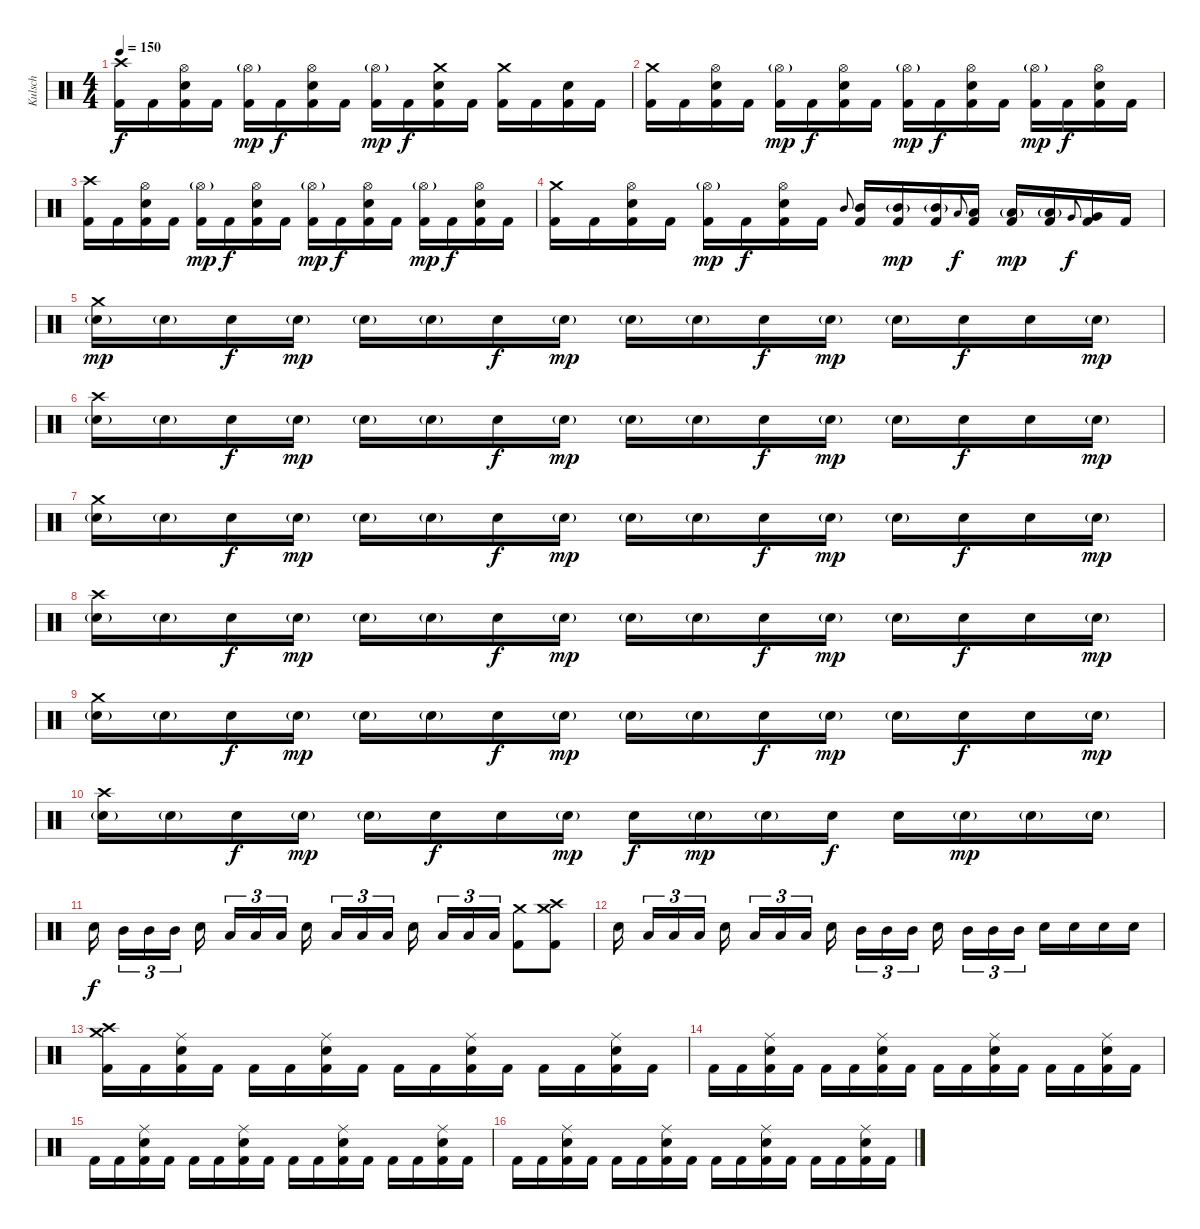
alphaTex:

\track ("Kulsch" "Kulsch") {instrument percussion}
\staff {score}
\articulation defaults
\ts (4 4)
\tempo 150
\clef neutral
\ks c
("Crash high (hit)" "Kick (hit) 2").16{dy f} "Kick (hit) 2".16 ("Hi-Hat (open)" "Snare (hit) 2" "Kick (hit) 2").16 "Kick (hit) 2".16 ("Hi-Hat (open)"{g} "Kick (hit) 2").16{dy mp} "Kick (hit) 2".16{dy f} ("Hi-Hat (open)" "Snare (hit) 2" "Kick (hit) 2").16 "Kick (hit) 2".16 ("Hi-Hat (open)"{g} "Kick (hit) 2").16{dy mp} "Kick (hit) 2".16{dy f} ("Crash medium (hit)" "Snare (hit) 2" "Kick (hit) 2").16 "Kick (hit) 2".16 ("Crash medium (hit)" "Kick (hit) 2").16 "Kick (hit) 2".16 ("Snare (hit) 2" "Kick (hit) 2").16 "Kick (hit) 2".16 |
("Crash medium (hit)" "Kick (hit) 2").16 "Kick (hit) 2".16 ("Hi-Hat (open)" "Snare (hit) 2" "Kick (hit) 2").16 "Kick (hit) 2".16 ("Hi-Hat (open)"{g} "Kick (hit) 2").16{dy mp} "Kick (hit) 2".16{dy f} ("Hi-Hat (open)" "Snare (hit) 2" "Kick (hit) 2").16 "Kick (hit) 2".16 ("Hi-Hat (open)"{g} "Kick (hit) 2").16{dy mp} "Kick (hit) 2".16{dy f} ("Hi-Hat (open)" "Snare (hit) 2" "Kick (hit) 2").16 "Kick (hit) 2".16 ("Hi-Hat (open)"{g} "Kick (hit) 2").16{dy mp} "Kick (hit) 2".16{dy f} ("Hi-Hat (open)" "Snare (hit) 2" "Kick (hit) 2").16 "Kick (hit) 2".16 |
("Crash high (hit)" "Kick (hit) 2").16 "Kick (hit) 2".16 ("Hi-Hat (open)" "Snare (hit) 2" "Kick (hit) 2").16 "Kick (hit) 2".16 ("Hi-Hat (open)"{g} "Kick (hit) 2").16{dy mp} "Kick (hit) 2".16{dy f} ("Hi-Hat (open)" "Snare (hit) 2" "Kick (hit) 2").16 "Kick (hit) 2".16 ("Hi-Hat (open)"{g} "Kick (hit) 2").16{dy mp} "Kick (hit) 2".16{dy f} ("Hi-Hat (open)" "Snare (hit) 2" "Kick (hit) 2").16 "Kick (hit) 2".16 ("Hi-Hat (open)"{g} "Kick (hit) 2").16{dy mp} "Kick (hit) 2".16{dy f} ("Hi-Hat (open)" "Snare (hit) 2" "Kick (hit) 2").16 "Kick (hit) 2".16 |
("Crash medium (hit)" "Kick (hit) 2").16 "Kick (hit) 2".16 ("Hi-Hat (open)" "Snare (hit) 2" "Kick (hit) 2").16 "Kick (hit) 2".16 ("Hi-Hat (open)"{g} "Kick (hit) 2").16{dy mp} "Kick (hit) 2".16{dy f} ("Hi-Hat (open)" "Snare (hit) 2" "Kick (hit) 2").16 "Kick (hit) 2".16 "Mid Tom (hit)".8{gr onbeat} ("Mid Tom (hit)" "Kick (hit) 2").16 ("Mid Tom (hit)"{g} "Kick (hit) 2").16{dy mp} ("Mid Tom (hit)"{g} "Kick (hit) 2").16 "Low Tom (hit)".8{gr onbeat dy f} ("Low Tom (hit)" "Kick (hit) 2").16 ("Low Tom (hit)"{g} "Kick (hit) 2").16{dy mp} ("Low Tom (hit)"{g} "Kick (hit) 2").16 "Very Low Tom (hit)".8{gr onbeat dy f} ("Very Low Tom (hit)" "Kick (hit) 2").16 "Kick (hit) 2".16 |
("Crash medium (hit)" "Snare (hit) 2"{g}).16{dy mp} "Snare (hit) 2"{g}.16 "Snare (hit) 2".16{dy f} "Snare (hit) 2"{g}.16{dy mp} "Snare (hit) 2"{g}.16 "Snare (hit) 2"{g}.16 "Snare (hit) 2".16{dy f} "Snare (hit) 2"{g}.16{dy mp} "Snare (hit) 2"{g}.16 "Snare (hit) 2"{g}.16 "Snare (hit) 2".16{dy f} "Snare (hit) 2"{g}.16{dy mp} "Snare (hit) 2"{g}.16 "Snare (hit) 2".16{dy f} "Snare (hit) 2".16 "Snare (hit) 2"{g}.16{dy mp} |
("Crash high (hit)" "Snare (hit) 2"{g}).16 "Snare (hit) 2"{g}.16 "Snare (hit) 2".16{dy f} "Snare (hit) 2"{g}.16{dy mp} "Snare (hit) 2"{g}.16 "Snare (hit) 2"{g}.16 "Snare (hit) 2".16{dy f} "Snare (hit) 2"{g}.16{dy mp} "Snare (hit) 2"{g}.16 "Snare (hit) 2"{g}.16 "Snare (hit) 2".16{dy f} "Snare (hit) 2"{g}.16{dy mp} "Snare (hit) 2"{g}.16 "Snare (hit) 2".16{dy f} "Snare (hit) 2".16 "Snare (hit) 2"{g}.16{dy mp} |
("Crash medium (hit)" "Snare (hit) 2"{g}).16 "Snare (hit) 2"{g}.16 "Snare (hit) 2".16{dy f} "Snare (hit) 2"{g}.16{dy mp} "Snare (hit) 2"{g}.16 "Snare (hit) 2"{g}.16 "Snare (hit) 2".16{dy f} "Snare (hit) 2"{g}.16{dy mp} "Snare (hit) 2"{g}.16 "Snare (hit) 2"{g}.16 "Snare (hit) 2".16{dy f} "Snare (hit) 2"{g}.16{dy mp} "Snare (hit) 2"{g}.16 "Snare (hit) 2".16{dy f} "Snare (hit) 2".16 "Snare (hit) 2"{g}.16{dy mp} |
("Crash high (hit)" "Snare (hit) 2"{g}).16 "Snare (hit) 2"{g}.16 "Snare (hit) 2".16{dy f} "Snare (hit) 2"{g}.16{dy mp} "Snare (hit) 2"{g}.16 "Snare (hit) 2"{g}.16 "Snare (hit) 2".16{dy f} "Snare (hit) 2"{g}.16{dy mp} "Snare (hit) 2"{g}.16 "Snare (hit) 2"{g}.16 "Snare (hit) 2".16{dy f} "Snare (hit) 2"{g}.16{dy mp} "Snare (hit) 2"{g}.16 "Snare (hit) 2".16{dy f} "Snare (hit) 2".16 "Snare (hit) 2"{g}.16{dy mp} |
("Crash medium (hit)" "Snare (hit) 2"{g}).16 "Snare (hit) 2"{g}.16 "Snare (hit) 2".16{dy f} "Snare (hit) 2"{g}.16{dy mp} "Snare (hit) 2"{g}.16 "Snare (hit) 2"{g}.16 "Snare (hit) 2".16{dy f} "Snare (hit) 2"{g}.16{dy mp} "Snare (hit) 2"{g}.16 "Snare (hit) 2"{g}.16 "Snare (hit) 2".16{dy f} "Snare (hit) 2"{g}.16{dy mp} "Snare (hit) 2"{g}.16 "Snare (hit) 2".16{dy f} "Snare (hit) 2".16 "Snare (hit) 2"{g}.16{dy mp} |
("Crash high (hit)" "Snare (hit) 2"{g}).16 "Snare (hit) 2"{g}.16 "Snare (hit) 2".16{dy f} "Snare (hit) 2"{g}.16{dy mp} "Snare (hit) 2"{g}.16 "Snare (hit) 2".16{dy f} "Snare (hit) 2".16 "Snare (hit) 2"{g}.16{dy mp} "Snare (hit) 2".16{dy f} "Snare (hit) 2"{g}.16{dy mp} "Snare (hit) 2"{g}.16 "Snare (hit) 2".16{dy f} "Snare (hit) 2".16 "Snare (hit) 2"{g}.16{dy mp} "Snare (hit) 2"{g}.16 "Snare (hit) 2"{g}.16 |
"Snare (hit) 2".16{dy f beam splitsecondary} "Mid Tom (hit)".16{tu (3 2)} "Mid Tom (hit)".16{tu (3 2)} "Mid Tom (hit)".16{tu (3 2) beam splitsecondary} "Snare (hit) 2".16 "Low Tom (hit)".16{tu (3 2)} "Low Tom (hit)".16{tu (3 2)} "Low Tom (hit)".16{tu (3 2) beam splitsecondary} "Snare (hit) 2".16{beam splitsecondary} "Low Tom (hit)".16{tu (3 2)} "Low Tom (hit)".16{tu (3 2)} "Low Tom (hit)".16{tu (3 2) beam splitsecondary} "Snare (hit) 2".16{beam splitsecondary} "Low Tom (hit)".16{tu (3 2)} "Low Tom (hit)".16{tu (3 2)} "Low Tom (hit)".16{tu (3 2)} ("Crash medium (hit)" "Kick (hit) 2").8 ("Crash medium (hit)" "Crash high (hit)" "Kick (hit) 2").8 |
"Snare (hit) 2".16{beam splitsecondary} "Low Tom (hit)".16{tu (3 2)} "Low Tom (hit)".16{tu (3 2)} "Low Tom (hit)".16{tu (3 2) beam splitsecondary} "Snare (hit) 2".16 "Low Tom (hit)".16{tu (3 2)} "Low Tom (hit)".16{tu (3 2)} "Low Tom (hit)".16{tu (3 2) beam splitsecondary} "Snare (hit) 2".16{beam splitsecondary} "Mid Tom (hit)".16{tu (3 2)} "Mid Tom (hit)".16{tu (3 2)} "Mid Tom (hit)".16{tu (3 2) beam splitsecondary} "Snare (hit) 2".16{beam splitsecondary} "Mid Tom (hit)".16{tu (3 2)} "Mid Tom (hit)".16{tu (3 2)} "Mid Tom (hit)".16{tu (3 2)} "Snare (hit) 2".16 "Snare (hit) 2".16 "Snare (hit) 2".16 "Snare (hit) 2".16 |
("Crash medium (hit)" "Crash high (hit)" "Kick (hit) 2").16 "Kick (hit) 2".16 ("Ride (middle)" "Snare (hit) 2" "Kick (hit) 2").16 "Kick (hit) 2".16 "Kick (hit) 2".16 "Kick (hit) 2".16 ("Ride (middle)" "Snare (hit) 2" "Kick (hit) 2").16 "Kick (hit) 2".16 "Kick (hit) 2".16 "Kick (hit) 2".16 ("Ride (middle)" "Snare (hit) 2" "Kick (hit) 2").16 "Kick (hit) 2".16 "Kick (hit) 2".16 "Kick (hit) 2".16 ("Ride (middle)" "Snare (hit) 2" "Kick (hit) 2").16 "Kick (hit) 2".16 |
"Kick (hit) 2".16 "Kick (hit) 2".16 ("Ride (middle)" "Snare (hit) 2" "Kick (hit) 2").16 "Kick (hit) 2".16 "Kick (hit) 2".16 "Kick (hit) 2".16 ("Ride (middle)" "Snare (hit) 2" "Kick (hit) 2").16 "Kick (hit) 2".16 "Kick (hit) 2".16 "Kick (hit) 2".16 ("Ride (middle)" "Snare (hit) 2" "Kick (hit) 2").16 "Kick (hit) 2".16 "Kick (hit) 2".16 "Kick (hit) 2".16 ("Ride (middle)" "Snare (hit) 2" "Kick (hit) 2").16 "Kick (hit) 2".16 |
"Kick (hit) 2".16 "Kick (hit) 2".16 ("Ride (middle)" "Snare (hit) 2" "Kick (hit) 2").16 "Kick (hit) 2".16 "Kick (hit) 2".16 "Kick (hit) 2".16 ("Ride (middle)" "Snare (hit) 2" "Kick (hit) 2").16 "Kick (hit) 2".16 "Kick (hit) 2".16 "Kick (hit) 2".16 ("Ride (middle)" "Snare (hit) 2" "Kick (hit) 2").16 "Kick (hit) 2".16 "Kick (hit) 2".16 "Kick (hit) 2".16 ("Ride (middle)" "Snare (hit) 2" "Kick (hit) 2").16 "Kick (hit) 2".16 |
"Kick (hit) 2".16 "Kick (hit) 2".16 ("Ride (middle)" "Snare (hit) 2" "Kick (hit) 2").16 "Kick (hit) 2".16 "Kick (hit) 2".16 "Kick (hit) 2".16 ("Ride (middle)" "Snare (hit) 2" "Kick (hit) 2").16 "Kick (hit) 2".16 "Kick (hit) 2".16 "Kick (hit) 2".16 ("Ride (middle)" "Snare (hit) 2" "Kick (hit) 2").16 "Kick (hit) 2".16 "Kick (hit) 2".16 "Kick (hit) 2".16 ("Ride (middle)" "Snare (hit) 2" "Kick (hit) 2").16 "Kick (hit) 2".16
